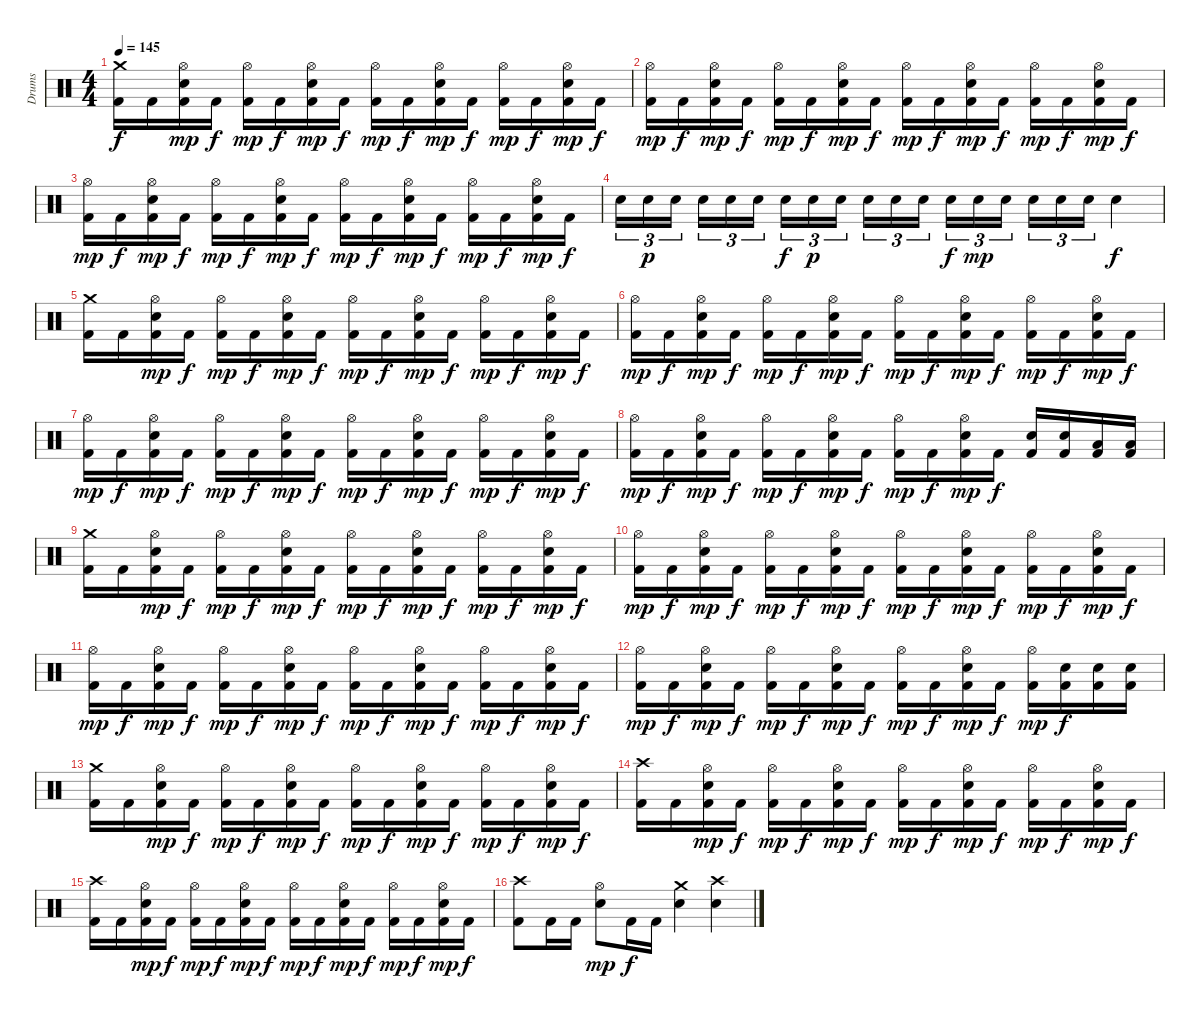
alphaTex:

\track ("Drums" "Drums") {instrument percussion}
\staff {score}
\articulation defaults
\ts (4 4)
\tempo 145
\clef neutral
\ks c
("Crash medium (hit)" "Kick (hit) 2").16{dy f} "Kick (hit) 2".16 ("Hi-Hat (open)" "Kick (hit) 2" "Electric Snare (hit)").16{dy mp} "Kick (hit) 2".16{dy f} ("Hi-Hat (open)" "Kick (hit) 2").16{dy mp} "Kick (hit) 2".16{dy f} ("Hi-Hat (open)" "Kick (hit) 2" "Electric Snare (hit)").16{dy mp} "Kick (hit) 2".16{dy f} ("Hi-Hat (open)" "Kick (hit) 2").16{dy mp} "Kick (hit) 2".16{dy f} ("Hi-Hat (open)" "Kick (hit) 2" "Electric Snare (hit)").16{dy mp} "Kick (hit) 2".16{dy f} ("Hi-Hat (open)" "Kick (hit) 2").16{dy mp} "Kick (hit) 2".16{dy f} ("Hi-Hat (open)" "Kick (hit) 2" "Electric Snare (hit)").16{dy mp} "Kick (hit) 2".16{dy f} |
("Hi-Hat (open)" "Kick (hit) 2").16{dy mp} "Kick (hit) 2".16{dy f} ("Hi-Hat (open)" "Kick (hit) 2" "Electric Snare (hit)").16{dy mp} "Kick (hit) 2".16{dy f} ("Hi-Hat (open)" "Kick (hit) 2").16{dy mp} "Kick (hit) 2".16{dy f} ("Hi-Hat (open)" "Kick (hit) 2" "Electric Snare (hit)").16{dy mp} "Kick (hit) 2".16{dy f} ("Hi-Hat (open)" "Kick (hit) 2").16{dy mp} "Kick (hit) 2".16{dy f} ("Hi-Hat (open)" "Kick (hit) 2" "Electric Snare (hit)").16{dy mp} "Kick (hit) 2".16{dy f} ("Hi-Hat (open)" "Kick (hit) 2").16{dy mp} "Kick (hit) 2".16{dy f} ("Hi-Hat (open)" "Kick (hit) 2" "Electric Snare (hit)").16{dy mp} "Kick (hit) 2".16{dy f} |
("Hi-Hat (open)" "Kick (hit) 2").16{dy mp} "Kick (hit) 2".16{dy f} ("Hi-Hat (open)" "Kick (hit) 2" "Electric Snare (hit)").16{dy mp} "Kick (hit) 2".16{dy f} ("Hi-Hat (open)" "Kick (hit) 2").16{dy mp} "Kick (hit) 2".16{dy f} ("Hi-Hat (open)" "Kick (hit) 2" "Electric Snare (hit)").16{dy mp} "Kick (hit) 2".16{dy f} ("Hi-Hat (open)" "Kick (hit) 2").16{dy mp} "Kick (hit) 2".16{dy f} ("Hi-Hat (open)" "Kick (hit) 2" "Electric Snare (hit)").16{dy mp} "Kick (hit) 2".16{dy f} ("Hi-Hat (open)" "Kick (hit) 2").16{dy mp} "Kick (hit) 2".16{dy f} ("Hi-Hat (open)" "Kick (hit) 2" "Electric Snare (hit)").16{dy mp} "Kick (hit) 2".16{dy f} |
"Electric Snare (hit)".16{tu (3 2)} "Electric Snare (hit)".16{tu (3 2) dy p} "Electric Snare (hit)".16{tu (3 2) beam splitsecondary} "Electric Snare (hit)".16{tu (3 2)} "Electric Snare (hit)".16{tu (3 2)} "Electric Snare (hit)".16{tu (3 2)} "Electric Snare (hit)".16{tu (3 2) dy f} "Electric Snare (hit)".16{tu (3 2) dy p} "Electric Snare (hit)".16{tu (3 2) beam splitsecondary} "Electric Snare (hit)".16{tu (3 2)} "Electric Snare (hit)".16{tu (3 2)} "Electric Snare (hit)".16{tu (3 2)} "Electric Snare (hit)".16{tu (3 2) dy f} "Electric Snare (hit)".16{tu (3 2) dy mp} "Electric Snare (hit)".16{tu (3 2) beam splitsecondary} "Electric Snare (hit)".16{tu (3 2)} "Electric Snare (hit)".16{tu (3 2)} "Electric Snare (hit)".16{tu (3 2)} "Electric Snare (hit)".4{dy f} |
("Crash medium (hit)" "Kick (hit) 2").16 "Kick (hit) 2".16 ("Hi-Hat (open)" "Kick (hit) 2" "Electric Snare (hit)").16{dy mp} "Kick (hit) 2".16{dy f} ("Hi-Hat (open)" "Kick (hit) 2").16{dy mp} "Kick (hit) 2".16{dy f} ("Hi-Hat (open)" "Kick (hit) 2" "Electric Snare (hit)").16{dy mp} "Kick (hit) 2".16{dy f} ("Hi-Hat (open)" "Kick (hit) 2").16{dy mp} "Kick (hit) 2".16{dy f} ("Hi-Hat (open)" "Kick (hit) 2" "Electric Snare (hit)").16{dy mp} "Kick (hit) 2".16{dy f} ("Hi-Hat (open)" "Kick (hit) 2").16{dy mp} "Kick (hit) 2".16{dy f} ("Hi-Hat (open)" "Kick (hit) 2" "Electric Snare (hit)").16{dy mp} "Kick (hit) 2".16{dy f} |
("Hi-Hat (open)" "Kick (hit) 2").16{dy mp} "Kick (hit) 2".16{dy f} ("Hi-Hat (open)" "Kick (hit) 2" "Electric Snare (hit)").16{dy mp} "Kick (hit) 2".16{dy f} ("Hi-Hat (open)" "Kick (hit) 2").16{dy mp} "Kick (hit) 2".16{dy f} ("Hi-Hat (open)" "Kick (hit) 2" "Electric Snare (hit)").16{dy mp} "Kick (hit) 2".16{dy f} ("Hi-Hat (open)" "Kick (hit) 2").16{dy mp} "Kick (hit) 2".16{dy f} ("Hi-Hat (open)" "Kick (hit) 2" "Electric Snare (hit)").16{dy mp} "Kick (hit) 2".16{dy f} ("Hi-Hat (open)" "Kick (hit) 2").16{dy mp} "Kick (hit) 2".16{dy f} ("Hi-Hat (open)" "Kick (hit) 2" "Electric Snare (hit)").16{dy mp} "Kick (hit) 2".16{dy f} |
("Hi-Hat (open)" "Kick (hit) 2").16{dy mp} "Kick (hit) 2".16{dy f} ("Hi-Hat (open)" "Kick (hit) 2" "Electric Snare (hit)").16{dy mp} "Kick (hit) 2".16{dy f} ("Hi-Hat (open)" "Kick (hit) 2").16{dy mp} "Kick (hit) 2".16{dy f} ("Hi-Hat (open)" "Kick (hit) 2" "Electric Snare (hit)").16{dy mp} "Kick (hit) 2".16{dy f} ("Hi-Hat (open)" "Kick (hit) 2").16{dy mp} "Kick (hit) 2".16{dy f} ("Hi-Hat (open)" "Kick (hit) 2" "Electric Snare (hit)").16{dy mp} "Kick (hit) 2".16{dy f} ("Hi-Hat (open)" "Kick (hit) 2").16{dy mp} "Kick (hit) 2".16{dy f} ("Hi-Hat (open)" "Kick (hit) 2" "Electric Snare (hit)").16{dy mp} "Kick (hit) 2".16{dy f} |
("Hi-Hat (open)" "Kick (hit) 2").16{dy mp} "Kick (hit) 2".16{dy f} ("Hi-Hat (open)" "Kick (hit) 2" "Electric Snare (hit)").16{dy mp} "Kick (hit) 2".16{dy f} ("Hi-Hat (open)" "Kick (hit) 2").16{dy mp} "Kick (hit) 2".16{dy f} ("Hi-Hat (open)" "Kick (hit) 2" "Electric Snare (hit)").16{dy mp} "Kick (hit) 2".16{dy f} ("Hi-Hat (open)" "Kick (hit) 2").16{dy mp} "Kick (hit) 2".16{dy f} ("Hi-Hat (open)" "Kick (hit) 2" "Electric Snare (hit)").16{dy mp} "Kick (hit) 2".16{dy f} ("Electric Snare (hit)" "Kick (hit) 2").16 ("Electric Snare (hit)" "Kick (hit) 2").16 ("Low Tom (hit)" "Kick (hit) 2").16 ("Low Tom (hit)" "Kick (hit) 2").16 |
("Crash medium (hit)" "Kick (hit) 2").16 "Kick (hit) 2".16 ("Hi-Hat (open)" "Kick (hit) 2" "Electric Snare (hit)").16{dy mp} "Kick (hit) 2".16{dy f} ("Hi-Hat (open)" "Kick (hit) 2").16{dy mp} "Kick (hit) 2".16{dy f} ("Hi-Hat (open)" "Kick (hit) 2" "Electric Snare (hit)").16{dy mp} "Kick (hit) 2".16{dy f} ("Hi-Hat (open)" "Kick (hit) 2").16{dy mp} "Kick (hit) 2".16{dy f} ("Hi-Hat (open)" "Kick (hit) 2" "Electric Snare (hit)").16{dy mp} "Kick (hit) 2".16{dy f} ("Hi-Hat (open)" "Kick (hit) 2").16{dy mp} "Kick (hit) 2".16{dy f} ("Hi-Hat (open)" "Kick (hit) 2" "Electric Snare (hit)").16{dy mp} "Kick (hit) 2".16{dy f} |
("Hi-Hat (open)" "Kick (hit) 2").16{dy mp} "Kick (hit) 2".16{dy f} ("Hi-Hat (open)" "Kick (hit) 2" "Electric Snare (hit)").16{dy mp} "Kick (hit) 2".16{dy f} ("Hi-Hat (open)" "Kick (hit) 2").16{dy mp} "Kick (hit) 2".16{dy f} ("Hi-Hat (open)" "Kick (hit) 2" "Electric Snare (hit)").16{dy mp} "Kick (hit) 2".16{dy f} ("Hi-Hat (open)" "Kick (hit) 2").16{dy mp} "Kick (hit) 2".16{dy f} ("Hi-Hat (open)" "Kick (hit) 2" "Electric Snare (hit)").16{dy mp} "Kick (hit) 2".16{dy f} ("Hi-Hat (open)" "Kick (hit) 2").16{dy mp} "Kick (hit) 2".16{dy f} ("Hi-Hat (open)" "Kick (hit) 2" "Electric Snare (hit)").16{dy mp} "Kick (hit) 2".16{dy f} |
("Hi-Hat (open)" "Kick (hit) 2").16{dy mp} "Kick (hit) 2".16{dy f} ("Hi-Hat (open)" "Kick (hit) 2" "Electric Snare (hit)").16{dy mp} "Kick (hit) 2".16{dy f} ("Hi-Hat (open)" "Kick (hit) 2").16{dy mp} "Kick (hit) 2".16{dy f} ("Hi-Hat (open)" "Kick (hit) 2" "Electric Snare (hit)").16{dy mp} "Kick (hit) 2".16{dy f} ("Hi-Hat (open)" "Kick (hit) 2").16{dy mp} "Kick (hit) 2".16{dy f} ("Hi-Hat (open)" "Kick (hit) 2" "Electric Snare (hit)").16{dy mp} "Kick (hit) 2".16{dy f} ("Hi-Hat (open)" "Kick (hit) 2").16{dy mp} "Kick (hit) 2".16{dy f} ("Hi-Hat (open)" "Kick (hit) 2" "Electric Snare (hit)").16{dy mp} "Kick (hit) 2".16{dy f} |
("Hi-Hat (open)" "Kick (hit) 2").16{dy mp} "Kick (hit) 2".16{dy f} ("Hi-Hat (open)" "Kick (hit) 2" "Electric Snare (hit)").16{dy mp} "Kick (hit) 2".16{dy f} ("Hi-Hat (open)" "Kick (hit) 2").16{dy mp} "Kick (hit) 2".16{dy f} ("Hi-Hat (open)" "Kick (hit) 2" "Electric Snare (hit)").16{dy mp} "Kick (hit) 2".16{dy f} ("Hi-Hat (open)" "Kick (hit) 2").16{dy mp} "Kick (hit) 2".16{dy f} ("Hi-Hat (open)" "Kick (hit) 2" "Electric Snare (hit)").16{dy mp} "Kick (hit) 2".16{dy f} ("Hi-Hat (open)" "Kick (hit) 2").16{dy mp} ("Electric Snare (hit)" "Kick (hit) 2").16{dy f} ("Electric Snare (hit)" "Kick (hit) 2").16 ("Electric Snare (hit)" "Kick (hit) 2").16 |
("Crash medium (hit)" "Kick (hit) 2").16 "Kick (hit) 2".16 ("Hi-Hat (open)" "Kick (hit) 2" "Electric Snare (hit)").16{dy mp} "Kick (hit) 2".16{dy f} ("Hi-Hat (open)" "Kick (hit) 2").16{dy mp} "Kick (hit) 2".16{dy f} ("Hi-Hat (open)" "Kick (hit) 2" "Electric Snare (hit)").16{dy mp} "Kick (hit) 2".16{dy f} ("Hi-Hat (open)" "Kick (hit) 2").16{dy mp} "Kick (hit) 2".16{dy f} ("Hi-Hat (open)" "Kick (hit) 2" "Electric Snare (hit)").16{dy mp} "Kick (hit) 2".16{dy f} ("Hi-Hat (open)" "Kick (hit) 2").16{dy mp} "Kick (hit) 2".16{dy f} ("Hi-Hat (open)" "Kick (hit) 2" "Electric Snare (hit)").16{dy mp} "Kick (hit) 2".16{dy f} |
("Crash high (hit)" "Kick (hit) 2").16 "Kick (hit) 2".16 ("Hi-Hat (open)" "Kick (hit) 2" "Electric Snare (hit)").16{dy mp} "Kick (hit) 2".16{dy f} ("Hi-Hat (open)" "Kick (hit) 2").16{dy mp} "Kick (hit) 2".16{dy f} ("Hi-Hat (open)" "Kick (hit) 2" "Electric Snare (hit)").16{dy mp} "Kick (hit) 2".16{dy f} ("Hi-Hat (open)" "Kick (hit) 2").16{dy mp} "Kick (hit) 2".16{dy f} ("Hi-Hat (open)" "Kick (hit) 2" "Electric Snare (hit)").16{dy mp} "Kick (hit) 2".16{dy f} ("Hi-Hat (open)" "Kick (hit) 2").16{dy mp} "Kick (hit) 2".16{dy f} ("Hi-Hat (open)" "Kick (hit) 2" "Electric Snare (hit)").16{dy mp} "Kick (hit) 2".16{dy f} |
("Crash high (hit)" "Kick (hit) 2").16 "Kick (hit) 2".16 ("Hi-Hat (open)" "Kick (hit) 2" "Electric Snare (hit)").16{dy mp} "Kick (hit) 2".16{dy f} ("Hi-Hat (open)" "Kick (hit) 2").16{dy mp} "Kick (hit) 2".16{dy f} ("Hi-Hat (open)" "Kick (hit) 2" "Electric Snare (hit)").16{dy mp} "Kick (hit) 2".16{dy f} ("Hi-Hat (open)" "Kick (hit) 2").16{dy mp} "Kick (hit) 2".16{dy f} ("Hi-Hat (open)" "Kick (hit) 2" "Electric Snare (hit)").16{dy mp} "Kick (hit) 2".16{dy f} ("Hi-Hat (open)" "Kick (hit) 2").16{dy mp} "Kick (hit) 2".16{dy f} ("Hi-Hat (open)" "Kick (hit) 2" "Electric Snare (hit)").16{dy mp} "Kick (hit) 2".16{dy f} |
("Crash high (hit)" "Kick (hit) 2").8 "Kick (hit) 2".16 "Kick (hit) 2".16 ("Hi-Hat (open)" "Electric Snare (hit)").8{dy mp} "Kick (hit) 2".16{dy f} "Kick (hit) 2".16 ("Crash medium (hit)" "Electric Snare (hit)").4 ("Crash high (hit)" "Electric Snare (hit)").4
